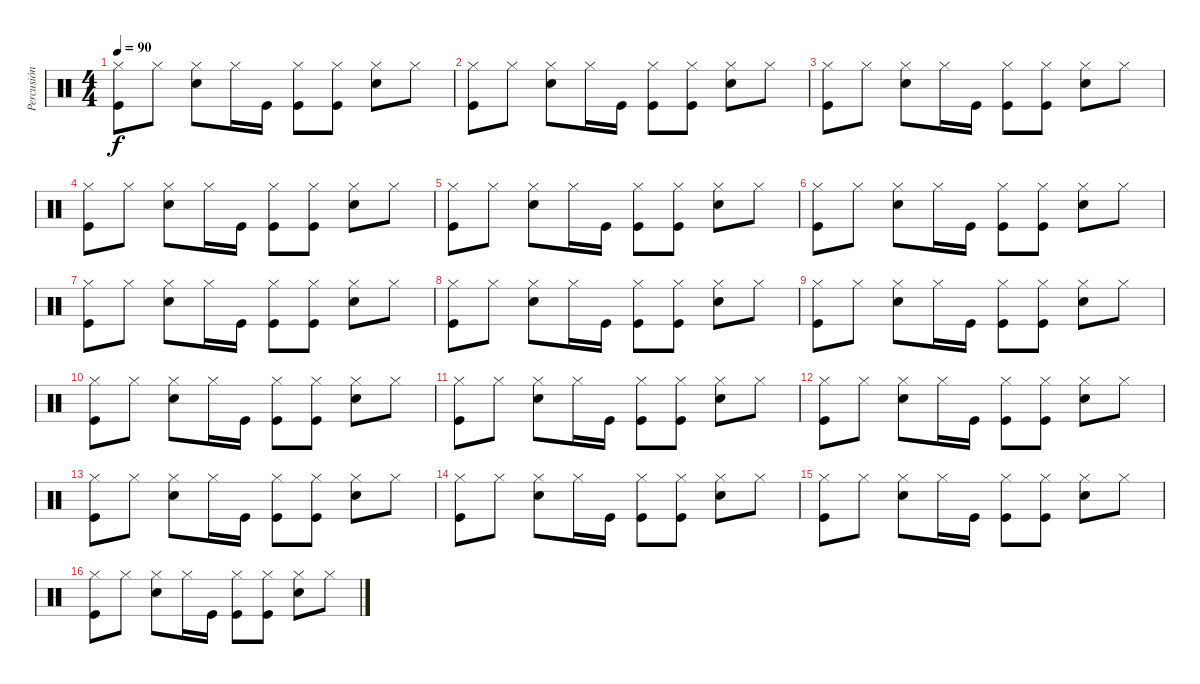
\track ("Percusión" "Percusión") {instrument percussion}
\staff {score}
\articulation defaults
\ts (4 4)
\tempo 90
\clef neutral
\ks c
("Hi-Hat (closed)" "Kick (hit)").8{dy f} "Hi-Hat (closed)".8 ("Hi-Hat (closed)" "Snare (hit) 2").8 "Hi-Hat (closed)".16 "Kick (hit)".16 ("Hi-Hat (closed)" "Kick (hit)").8 ("Hi-Hat (closed)" "Kick (hit)").8 ("Hi-Hat (closed)" "Snare (hit) 2").8 "Hi-Hat (closed)".8 |
("Hi-Hat (closed)" "Kick (hit)").8 "Hi-Hat (closed)".8 ("Hi-Hat (closed)" "Snare (hit) 2").8 "Hi-Hat (closed)".16 "Kick (hit)".16 ("Hi-Hat (closed)" "Kick (hit)").8 ("Hi-Hat (closed)" "Kick (hit)").8 ("Hi-Hat (closed)" "Snare (hit) 2").8 "Hi-Hat (closed)".8 |
("Hi-Hat (closed)" "Kick (hit)").8 "Hi-Hat (closed)".8 ("Hi-Hat (closed)" "Snare (hit) 2").8 "Hi-Hat (closed)".16 "Kick (hit)".16 ("Hi-Hat (closed)" "Kick (hit)").8 ("Hi-Hat (closed)" "Kick (hit)").8 ("Hi-Hat (closed)" "Snare (hit) 2").8 "Hi-Hat (closed)".8 |
("Hi-Hat (closed)" "Kick (hit)").8 "Hi-Hat (closed)".8 ("Hi-Hat (closed)" "Snare (hit) 2").8 "Hi-Hat (closed)".16 "Kick (hit)".16 ("Hi-Hat (closed)" "Kick (hit)").8 ("Hi-Hat (closed)" "Kick (hit)").8 ("Hi-Hat (closed)" "Snare (hit) 2").8 "Hi-Hat (closed)".8 |
("Hi-Hat (closed)" "Kick (hit)").8 "Hi-Hat (closed)".8 ("Hi-Hat (closed)" "Snare (hit) 2").8 "Hi-Hat (closed)".16 "Kick (hit)".16 ("Hi-Hat (closed)" "Kick (hit)").8 ("Hi-Hat (closed)" "Kick (hit)").8 ("Hi-Hat (closed)" "Snare (hit) 2").8 "Hi-Hat (closed)".8 |
("Hi-Hat (closed)" "Kick (hit)").8 "Hi-Hat (closed)".8 ("Hi-Hat (closed)" "Snare (hit) 2").8 "Hi-Hat (closed)".16 "Kick (hit)".16 ("Hi-Hat (closed)" "Kick (hit)").8 ("Hi-Hat (closed)" "Kick (hit)").8 ("Hi-Hat (closed)" "Snare (hit) 2").8 "Hi-Hat (closed)".8 |
("Hi-Hat (closed)" "Kick (hit)").8 "Hi-Hat (closed)".8 ("Hi-Hat (closed)" "Snare (hit) 2").8 "Hi-Hat (closed)".16 "Kick (hit)".16 ("Hi-Hat (closed)" "Kick (hit)").8 ("Hi-Hat (closed)" "Kick (hit)").8 ("Hi-Hat (closed)" "Snare (hit) 2").8 "Hi-Hat (closed)".8 |
("Hi-Hat (closed)" "Kick (hit)").8 "Hi-Hat (closed)".8 ("Hi-Hat (closed)" "Snare (hit) 2").8 "Hi-Hat (closed)".16 "Kick (hit)".16 ("Hi-Hat (closed)" "Kick (hit)").8 ("Hi-Hat (closed)" "Kick (hit)").8 ("Hi-Hat (closed)" "Snare (hit) 2").8 "Hi-Hat (closed)".8 |
("Hi-Hat (closed)" "Kick (hit)").8 "Hi-Hat (closed)".8 ("Hi-Hat (closed)" "Snare (hit) 2").8 "Hi-Hat (closed)".16 "Kick (hit)".16 ("Hi-Hat (closed)" "Kick (hit)").8 ("Hi-Hat (closed)" "Kick (hit)").8 ("Hi-Hat (closed)" "Snare (hit) 2").8 "Hi-Hat (closed)".8 |
("Hi-Hat (closed)" "Kick (hit)").8 "Hi-Hat (closed)".8 ("Hi-Hat (closed)" "Snare (hit) 2").8 "Hi-Hat (closed)".16 "Kick (hit)".16 ("Hi-Hat (closed)" "Kick (hit)").8 ("Hi-Hat (closed)" "Kick (hit)").8 ("Hi-Hat (closed)" "Snare (hit) 2").8 "Hi-Hat (closed)".8 |
("Hi-Hat (closed)" "Kick (hit)").8 "Hi-Hat (closed)".8 ("Hi-Hat (closed)" "Snare (hit) 2").8 "Hi-Hat (closed)".16 "Kick (hit)".16 ("Hi-Hat (closed)" "Kick (hit)").8 ("Hi-Hat (closed)" "Kick (hit)").8 ("Hi-Hat (closed)" "Snare (hit) 2").8 "Hi-Hat (closed)".8 |
("Hi-Hat (closed)" "Kick (hit)").8 "Hi-Hat (closed)".8 ("Hi-Hat (closed)" "Snare (hit) 2").8 "Hi-Hat (closed)".16 "Kick (hit)".16 ("Hi-Hat (closed)" "Kick (hit)").8 ("Hi-Hat (closed)" "Kick (hit)").8 ("Hi-Hat (closed)" "Snare (hit) 2").8 "Hi-Hat (closed)".8 |
("Hi-Hat (closed)" "Kick (hit)").8 "Hi-Hat (closed)".8 ("Hi-Hat (closed)" "Snare (hit) 2").8 "Hi-Hat (closed)".16 "Kick (hit)".16 ("Hi-Hat (closed)" "Kick (hit)").8 ("Hi-Hat (closed)" "Kick (hit)").8 ("Hi-Hat (closed)" "Snare (hit) 2").8 "Hi-Hat (closed)".8 |
("Hi-Hat (closed)" "Kick (hit)").8 "Hi-Hat (closed)".8 ("Hi-Hat (closed)" "Snare (hit) 2").8 "Hi-Hat (closed)".16 "Kick (hit)".16 ("Hi-Hat (closed)" "Kick (hit)").8 ("Hi-Hat (closed)" "Kick (hit)").8 ("Hi-Hat (closed)" "Snare (hit) 2").8 "Hi-Hat (closed)".8 |
("Hi-Hat (closed)" "Kick (hit)").8 "Hi-Hat (closed)".8 ("Hi-Hat (closed)" "Snare (hit) 2").8 "Hi-Hat (closed)".16 "Kick (hit)".16 ("Hi-Hat (closed)" "Kick (hit)").8 ("Hi-Hat (closed)" "Kick (hit)").8 ("Hi-Hat (closed)" "Snare (hit) 2").8 "Hi-Hat (closed)".8 |
("Hi-Hat (closed)" "Kick (hit)").8 "Hi-Hat (closed)".8 ("Hi-Hat (closed)" "Snare (hit) 2").8 "Hi-Hat (closed)".16 "Kick (hit)".16 ("Hi-Hat (closed)" "Kick (hit)").8 ("Hi-Hat (closed)" "Kick (hit)").8 ("Hi-Hat (closed)" "Snare (hit) 2").8 "Hi-Hat (closed)".8
